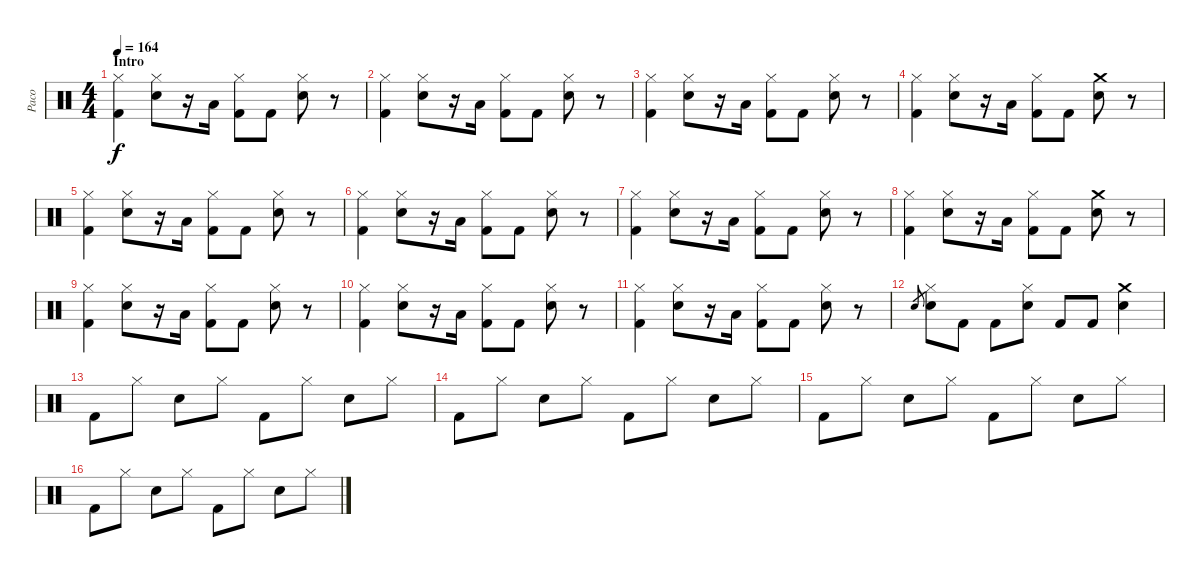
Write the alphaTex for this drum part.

\track ("Paco" "Paco") {instrument percussion}
\staff {score}
\articulation defaults
\ts (4 4)
\section ("" "Intro")
\tempo 164
\clef neutral
\ks c
("Hi-Hat (closed)" "Kick (hit) 2").4{dy f} ("Hi-Hat (closed)" "Electric Snare (hit)").8 r.16 "Low Floor Tom (hit)".16 ("Hi-Hat (closed)" "Kick (hit) 2").8 "Kick (hit) 2".8 ("Hi-Hat (closed)" "Electric Snare (hit)").8 r.8 |
("Hi-Hat (closed)" "Kick (hit) 2").4 ("Hi-Hat (closed)" "Electric Snare (hit)").8 r.16 "Low Floor Tom (hit)".16 ("Hi-Hat (closed)" "Kick (hit) 2").8 "Kick (hit) 2".8 ("Hi-Hat (closed)" "Electric Snare (hit)").8 r.8 |
("Hi-Hat (closed)" "Kick (hit) 2").4 ("Hi-Hat (closed)" "Electric Snare (hit)").8 r.16 "Low Floor Tom (hit)".16 ("Hi-Hat (closed)" "Kick (hit) 2").8 "Kick (hit) 2".8 ("Hi-Hat (closed)" "Electric Snare (hit)").8 r.8 |
("Hi-Hat (closed)" "Kick (hit) 2").4 ("Hi-Hat (closed)" "Electric Snare (hit)").8 r.16 "Low Floor Tom (hit)".16 ("Hi-Hat (closed)" "Kick (hit) 2").8 "Kick (hit) 2".8 ("Crash medium (hit)" "Electric Snare (hit)").8 r.8 |
("Hi-Hat (closed)" "Kick (hit) 2").4 ("Hi-Hat (closed)" "Electric Snare (hit)").8 r.16 "Low Floor Tom (hit)".16 ("Hi-Hat (closed)" "Kick (hit) 2").8 "Kick (hit) 2".8 ("Hi-Hat (closed)" "Electric Snare (hit)").8 r.8 |
("Hi-Hat (closed)" "Kick (hit) 2").4 ("Hi-Hat (closed)" "Electric Snare (hit)").8 r.16 "Low Floor Tom (hit)".16 ("Hi-Hat (closed)" "Kick (hit) 2").8 "Kick (hit) 2".8 ("Hi-Hat (closed)" "Electric Snare (hit)").8 r.8 |
("Hi-Hat (closed)" "Kick (hit) 2").4 ("Hi-Hat (closed)" "Electric Snare (hit)").8 r.16 "Low Floor Tom (hit)".16 ("Hi-Hat (closed)" "Kick (hit) 2").8 "Kick (hit) 2".8 ("Hi-Hat (closed)" "Electric Snare (hit)").8 r.8 |
("Hi-Hat (closed)" "Kick (hit) 2").4 ("Hi-Hat (closed)" "Electric Snare (hit)").8 r.16 "Low Floor Tom (hit)".16 ("Hi-Hat (closed)" "Kick (hit) 2").8 "Kick (hit) 2".8 ("Crash medium (hit)" "Electric Snare (hit)").8 r.8 |
("Hi-Hat (closed)" "Kick (hit) 2").4 ("Hi-Hat (closed)" "Electric Snare (hit)").8 r.16 "Low Floor Tom (hit)".16 ("Hi-Hat (closed)" "Kick (hit) 2").8 "Kick (hit) 2".8 ("Hi-Hat (closed)" "Electric Snare (hit)").8 r.8 |
("Hi-Hat (closed)" "Kick (hit) 2").4 ("Hi-Hat (closed)" "Electric Snare (hit)").8 r.16 "Low Floor Tom (hit)".16 ("Hi-Hat (closed)" "Kick (hit) 2").8 "Kick (hit) 2".8 ("Hi-Hat (closed)" "Electric Snare (hit)").8 r.8 |
("Hi-Hat (closed)" "Kick (hit) 2").4 ("Hi-Hat (closed)" "Electric Snare (hit)").8 r.16 "Low Floor Tom (hit)".16 ("Hi-Hat (closed)" "Kick (hit) 2").8 "Kick (hit) 2".8 ("Hi-Hat (closed)" "Electric Snare (hit)").8 r.8 |
"Electric Snare (hit)".8{gr} ("Hi-Hat (closed)" "Electric Snare (hit)").8 "Kick (hit) 2".8 "Kick (hit) 2".8 ("Hi-Hat (closed)" "Electric Snare (hit)").8 "Kick (hit) 2".8 "Kick (hit) 2".8 ("Crash medium (hit)" "Electric Snare (hit)").4 |
"Kick (hit) 2".8 "Hi-Hat (closed)".8 "Electric Snare (hit)".8 "Hi-Hat (closed)".8 "Kick (hit) 2".8 "Hi-Hat (closed)".8 "Electric Snare (hit)".8 "Hi-Hat (closed)".8 |
"Kick (hit) 2".8 "Hi-Hat (closed)".8 "Electric Snare (hit)".8 "Hi-Hat (closed)".8 "Kick (hit) 2".8 "Hi-Hat (closed)".8 "Electric Snare (hit)".8 "Hi-Hat (closed)".8 |
"Kick (hit) 2".8 "Hi-Hat (closed)".8 "Electric Snare (hit)".8 "Hi-Hat (closed)".8 "Kick (hit) 2".8 "Hi-Hat (closed)".8 "Electric Snare (hit)".8 "Hi-Hat (closed)".8 |
"Kick (hit) 2".8 "Hi-Hat (closed)".8 "Electric Snare (hit)".8 "Hi-Hat (closed)".8 "Kick (hit) 2".8 "Hi-Hat (closed)".8 "Electric Snare (hit)".8 "Hi-Hat (closed)".8
